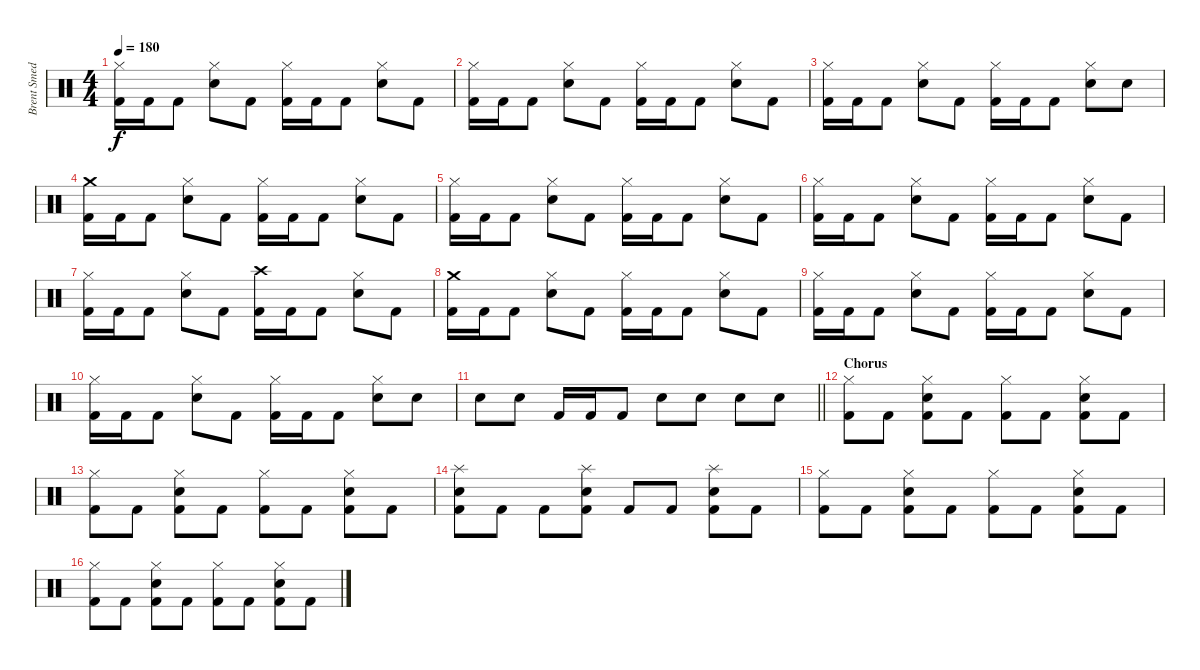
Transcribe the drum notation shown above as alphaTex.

\track ("Brent Smedley" "Brent Smed") {instrument percussion}
\staff {score}
\articulation defaults
\ts (4 4)
\tempo 180
\clef neutral
\ks c
("Hi-Hat (closed)" "Kick (hit) 2").16{dy f} "Kick (hit) 2".16 "Kick (hit) 2".8 ("Hi-Hat (closed)" "Snare (hit) 2").8 "Kick (hit) 2".8 ("Hi-Hat (closed)" "Kick (hit) 2").16 "Kick (hit) 2".16 "Kick (hit) 2".8 ("Hi-Hat (closed)" "Snare (hit) 2").8 "Kick (hit) 2".8 |
("Hi-Hat (closed)" "Kick (hit) 2").16 "Kick (hit) 2".16 "Kick (hit) 2".8 ("Hi-Hat (closed)" "Snare (hit) 2").8 "Kick (hit) 2".8 ("Hi-Hat (closed)" "Kick (hit) 2").16 "Kick (hit) 2".16 "Kick (hit) 2".8 ("Hi-Hat (closed)" "Snare (hit) 2").8 "Kick (hit) 2".8 |
("Hi-Hat (closed)" "Kick (hit) 2").16 "Kick (hit) 2".16 "Kick (hit) 2".8 ("Hi-Hat (closed)" "Snare (hit) 2").8 "Kick (hit) 2".8 ("Hi-Hat (closed)" "Kick (hit) 2").16 "Kick (hit) 2".16 "Kick (hit) 2".8 ("Hi-Hat (closed)" "Snare (hit) 2").8 "Snare (hit) 2".8 |
("Crash medium (hit)" "Kick (hit) 2").16 "Kick (hit) 2".16 "Kick (hit) 2".8 ("Hi-Hat (closed)" "Snare (hit) 2").8 "Kick (hit) 2".8 ("Hi-Hat (closed)" "Kick (hit) 2").16 "Kick (hit) 2".16 "Kick (hit) 2".8 ("Hi-Hat (closed)" "Snare (hit) 2").8 "Kick (hit) 2".8 |
("Hi-Hat (closed)" "Kick (hit) 2").16 "Kick (hit) 2".16 "Kick (hit) 2".8 ("Hi-Hat (closed)" "Snare (hit) 2").8 "Kick (hit) 2".8 ("Hi-Hat (closed)" "Kick (hit) 2").16 "Kick (hit) 2".16 "Kick (hit) 2".8 ("Hi-Hat (closed)" "Snare (hit) 2").8 "Kick (hit) 2".8 |
("Hi-Hat (closed)" "Kick (hit) 2").16 "Kick (hit) 2".16 "Kick (hit) 2".8 ("Hi-Hat (closed)" "Snare (hit) 2").8 "Kick (hit) 2".8 ("Hi-Hat (closed)" "Kick (hit) 2").16 "Kick (hit) 2".16 "Kick (hit) 2".8 ("Hi-Hat (closed)" "Snare (hit) 2").8 "Kick (hit) 2".8 |
("Hi-Hat (closed)" "Kick (hit) 2").16 "Kick (hit) 2".16 "Kick (hit) 2".8 ("Hi-Hat (closed)" "Snare (hit) 2").8 "Kick (hit) 2".8 ("Crash high (hit)" "Kick (hit) 2").16 "Kick (hit) 2".16 "Kick (hit) 2".8 ("Hi-Hat (closed)" "Snare (hit) 2").8 "Kick (hit) 2".8 |
("Crash medium (hit)" "Kick (hit) 2").16 "Kick (hit) 2".16 "Kick (hit) 2".8 ("Hi-Hat (closed)" "Snare (hit) 2").8 "Kick (hit) 2".8 ("Hi-Hat (closed)" "Kick (hit) 2").16 "Kick (hit) 2".16 "Kick (hit) 2".8 ("Hi-Hat (closed)" "Snare (hit) 2").8 "Kick (hit) 2".8 |
("Hi-Hat (closed)" "Kick (hit) 2").16 "Kick (hit) 2".16 "Kick (hit) 2".8 ("Hi-Hat (closed)" "Snare (hit) 2").8 "Kick (hit) 2".8 ("Hi-Hat (closed)" "Kick (hit) 2").16 "Kick (hit) 2".16 "Kick (hit) 2".8 ("Hi-Hat (closed)" "Snare (hit) 2").8 "Kick (hit) 2".8 |
("Hi-Hat (closed)" "Kick (hit) 2").16 "Kick (hit) 2".16 "Kick (hit) 2".8 ("Hi-Hat (closed)" "Snare (hit) 2").8 "Kick (hit) 2".8 ("Hi-Hat (closed)" "Kick (hit) 2").16 "Kick (hit) 2".16 "Kick (hit) 2".8 ("Hi-Hat (closed)" "Snare (hit) 2").8 "Snare (hit) 2".8 |
\barLineRight lightlight "Snare (hit) 2".8 "Snare (hit) 2".8 "Kick (hit) 2".16 "Kick (hit) 2".16 "Kick (hit) 2".8 "Snare (hit) 2".8 "Snare (hit) 2".8 "Snare (hit) 2".8 "Snare (hit) 2".8
|
\section ("" "Chorus")
("Hi-Hat (closed)" "Kick (hit) 2").8 "Kick (hit) 2".8 ("Hi-Hat (closed)" "Snare (hit) 2" "Kick (hit) 2").8 "Kick (hit) 2".8 ("Hi-Hat (closed)" "Kick (hit) 2").8 "Kick (hit) 2".8 ("Hi-Hat (closed)" "Snare (hit) 2" "Kick (hit) 2").8 "Kick (hit) 2".8 |
("Hi-Hat (closed)" "Kick (hit) 2").8 "Kick (hit) 2".8 ("Hi-Hat (closed)" "Snare (hit) 2" "Kick (hit) 2").8 "Kick (hit) 2".8 ("Hi-Hat (closed)" "Kick (hit) 2").8 "Kick (hit) 2".8 ("Hi-Hat (closed)" "Snare (hit) 2" "Kick (hit) 2").8 "Kick (hit) 2".8 |
("Splash (hit)" "Snare (hit) 2" "Kick (hit) 2").8 "Kick (hit) 2".8 "Kick (hit) 2".8 ("Splash (hit)" "Snare (hit) 2" "Kick (hit) 2").8 "Kick (hit) 2".8 "Kick (hit) 2".8 ("Splash (hit)" "Snare (hit) 2" "Kick (hit) 2").8 "Kick (hit) 2".8 |
("Hi-Hat (closed)" "Kick (hit) 2").8 "Kick (hit) 2".8 ("Hi-Hat (closed)" "Snare (hit) 2" "Kick (hit) 2").8 "Kick (hit) 2".8 ("Hi-Hat (closed)" "Kick (hit) 2").8 "Kick (hit) 2".8 ("Hi-Hat (closed)" "Snare (hit) 2" "Kick (hit) 2").8 "Kick (hit) 2".8 |
("Hi-Hat (closed)" "Kick (hit) 2").8 "Kick (hit) 2".8 ("Hi-Hat (closed)" "Snare (hit) 2" "Kick (hit) 2").8 "Kick (hit) 2".8 ("Hi-Hat (closed)" "Kick (hit) 2").8 "Kick (hit) 2".8 ("Hi-Hat (closed)" "Snare (hit) 2" "Kick (hit) 2").8 "Kick (hit) 2".8
